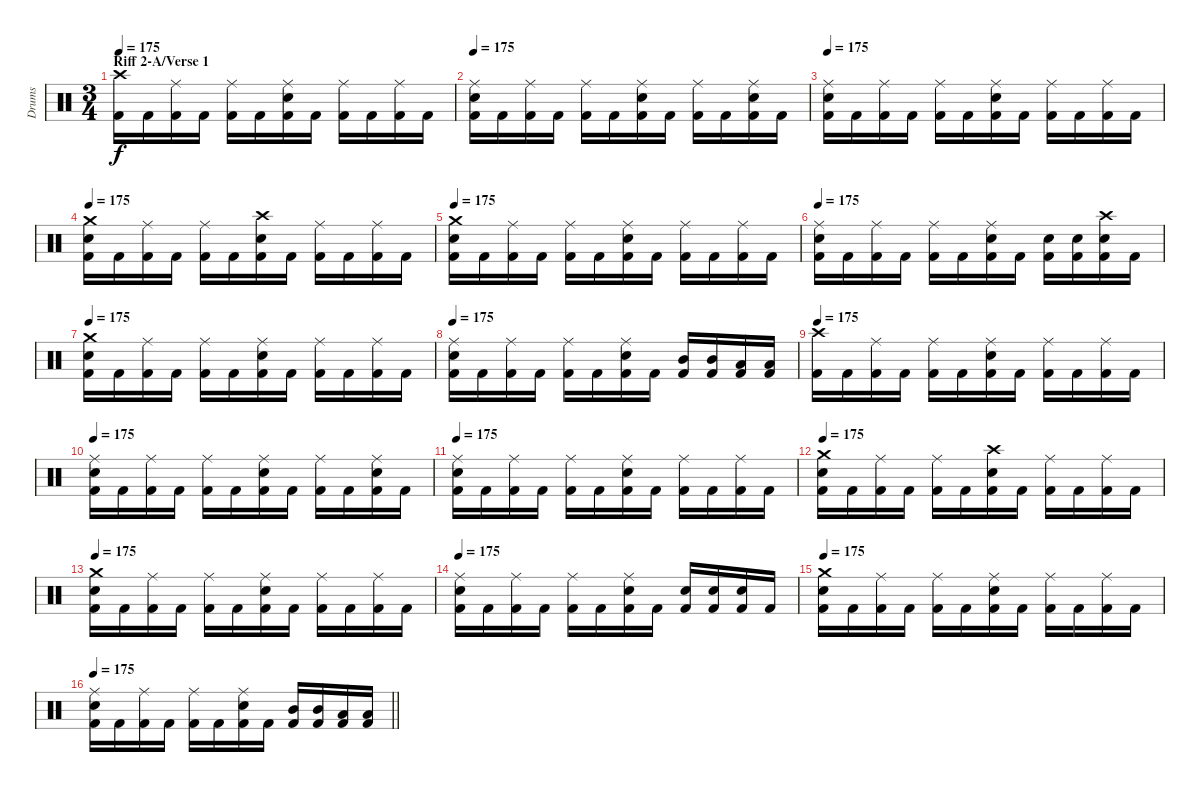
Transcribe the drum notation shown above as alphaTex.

\track ("Drums" "Drums") {instrument percussion}
\staff {score}
\articulation defaults
\ts (3 4)
\section ("" "Riff 2-A/Verse 1")
\tempo 175
\clef neutral
\ks c
("Crash high (hit)" "Kick (hit) 2").16{dy f} "Kick (hit) 2".16 ("Ride (middle)" "Kick (hit) 2").16 "Kick (hit) 2".16 ("Ride (middle)" "Kick (hit) 2").16 "Kick (hit) 2".16 ("Ride (middle)" "Electric Snare (hit)" "Kick (hit) 2").16 "Kick (hit) 2".16 ("Ride (middle)" "Kick (hit) 2").16 "Kick (hit) 2".16 ("Ride (middle)" "Kick (hit) 2").16 "Kick (hit) 2".16 |
\tempo 175
("Ride (middle)" "Electric Snare (hit)" "Kick (hit) 2").16 "Kick (hit) 2".16 ("Ride (middle)" "Kick (hit) 2").16 "Kick (hit) 2".16 ("Ride (middle)" "Kick (hit) 2").16 "Kick (hit) 2".16 ("Ride (middle)" "Electric Snare (hit)" "Kick (hit) 2").16 "Kick (hit) 2".16 ("Ride (middle)" "Kick (hit) 2").16 "Kick (hit) 2".16 ("Ride (middle)" "Electric Snare (hit)" "Kick (hit) 2").16 "Kick (hit) 2".16 |
\tempo 175
("Ride (middle)" "Electric Snare (hit)" "Kick (hit) 2").16 "Kick (hit) 2".16 ("Ride (middle)" "Kick (hit) 2").16 "Kick (hit) 2".16 ("Ride (middle)" "Kick (hit) 2").16 "Kick (hit) 2".16 ("Ride (middle)" "Electric Snare (hit)" "Kick (hit) 2").16 "Kick (hit) 2".16 ("Ride (middle)" "Kick (hit) 2").16 "Kick (hit) 2".16 ("Ride (middle)" "Kick (hit) 2").16 "Kick (hit) 2".16 |
\tempo 175
("Crash medium (hit)" "Electric Snare (hit)" "Kick (hit) 2").16 "Kick (hit) 2".16 ("Ride (middle)" "Kick (hit) 2").16 "Kick (hit) 2".16 ("Ride (middle)" "Kick (hit) 2").16 "Kick (hit) 2".16 ("Crash high (hit)" "Electric Snare (hit)" "Kick (hit) 2").16 "Kick (hit) 2".16 ("Ride (middle)" "Kick (hit) 2").16 "Kick (hit) 2".16 ("Ride (middle)" "Kick (hit) 2").16 "Kick (hit) 2".16 |
\tempo 175
("Crash medium (hit)" "Electric Snare (hit)" "Kick (hit) 2").16 "Kick (hit) 2".16 ("Ride (middle)" "Kick (hit) 2").16 "Kick (hit) 2".16 ("Ride (middle)" "Kick (hit) 2").16 "Kick (hit) 2".16 ("Ride (middle)" "Electric Snare (hit)" "Kick (hit) 2").16 "Kick (hit) 2".16 ("Ride (middle)" "Kick (hit) 2").16 "Kick (hit) 2".16 ("Ride (middle)" "Kick (hit) 2").16 "Kick (hit) 2".16 |
\tempo 175
("Ride (middle)" "Electric Snare (hit)" "Kick (hit) 2").16 "Kick (hit) 2".16 ("Ride (middle)" "Kick (hit) 2").16 "Kick (hit) 2".16 ("Ride (middle)" "Kick (hit) 2").16 "Kick (hit) 2".16 ("Ride (middle)" "Electric Snare (hit)" "Kick (hit) 2").16 "Kick (hit) 2".16 ("Electric Snare (hit)" "Kick (hit) 2").16 ("Electric Snare (hit)" "Kick (hit) 2").16 ("Crash high (hit)" "Electric Snare (hit)" "Kick (hit) 2").16 "Kick (hit) 2".16 |
\tempo 175
("Crash medium (hit)" "Electric Snare (hit)" "Kick (hit) 2").16 "Kick (hit) 2".16 ("Ride (middle)" "Kick (hit) 2").16 "Kick (hit) 2".16 ("Ride (middle)" "Kick (hit) 2").16 "Kick (hit) 2".16 ("Ride (middle)" "Electric Snare (hit)" "Kick (hit) 2").16 "Kick (hit) 2".16 ("Ride (middle)" "Kick (hit) 2").16 "Kick (hit) 2".16 ("Ride (middle)" "Kick (hit) 2").16 "Kick (hit) 2".16 |
\tempo 175
("Ride (middle)" "Electric Snare (hit)" "Kick (hit) 2").16 "Kick (hit) 2".16 ("Ride (middle)" "Kick (hit) 2").16 "Kick (hit) 2".16 ("Ride (middle)" "Kick (hit) 2").16 "Kick (hit) 2".16 ("Ride (middle)" "Electric Snare (hit)" "Kick (hit) 2").16 "Kick (hit) 2".16 ("Mid Tom (hit)" "Kick (hit) 2").16 ("Mid Tom (hit)" "Kick (hit) 2").16 ("Low Tom (hit)" "Kick (hit) 2").16 ("Low Tom (hit)" "Kick (hit) 2").16 |
\tempo 175
("Crash high (hit)" "Kick (hit) 2").16 "Kick (hit) 2".16 ("Ride (middle)" "Kick (hit) 2").16 "Kick (hit) 2".16 ("Ride (middle)" "Kick (hit) 2").16 "Kick (hit) 2".16 ("Ride (middle)" "Electric Snare (hit)" "Kick (hit) 2").16 "Kick (hit) 2".16 ("Ride (middle)" "Kick (hit) 2").16 "Kick (hit) 2".16 ("Ride (middle)" "Kick (hit) 2").16 "Kick (hit) 2".16 |
\tempo 175
("Ride (middle)" "Electric Snare (hit)" "Kick (hit) 2").16 "Kick (hit) 2".16 ("Ride (middle)" "Kick (hit) 2").16 "Kick (hit) 2".16 ("Ride (middle)" "Kick (hit) 2").16 "Kick (hit) 2".16 ("Ride (middle)" "Electric Snare (hit)" "Kick (hit) 2").16 "Kick (hit) 2".16 ("Ride (middle)" "Kick (hit) 2").16 "Kick (hit) 2".16 ("Ride (middle)" "Electric Snare (hit)" "Kick (hit) 2").16 "Kick (hit) 2".16 |
\tempo 175
("Ride (middle)" "Electric Snare (hit)" "Kick (hit) 2").16 "Kick (hit) 2".16 ("Ride (middle)" "Kick (hit) 2").16 "Kick (hit) 2".16 ("Ride (middle)" "Kick (hit) 2").16 "Kick (hit) 2".16 ("Ride (middle)" "Electric Snare (hit)" "Kick (hit) 2").16 "Kick (hit) 2".16 ("Ride (middle)" "Kick (hit) 2").16 "Kick (hit) 2".16 ("Ride (middle)" "Kick (hit) 2").16 "Kick (hit) 2".16 |
\tempo 175
("Crash medium (hit)" "Electric Snare (hit)" "Kick (hit) 2").16 "Kick (hit) 2".16 ("Ride (middle)" "Kick (hit) 2").16 "Kick (hit) 2".16 ("Ride (middle)" "Kick (hit) 2").16 "Kick (hit) 2".16 ("Crash high (hit)" "Electric Snare (hit)" "Kick (hit) 2").16 "Kick (hit) 2".16 ("Ride (middle)" "Kick (hit) 2").16 "Kick (hit) 2".16 ("Ride (middle)" "Kick (hit) 2").16 "Kick (hit) 2".16 |
\tempo 175
("Crash medium (hit)" "Electric Snare (hit)" "Kick (hit) 2").16 "Kick (hit) 2".16 ("Ride (middle)" "Kick (hit) 2").16 "Kick (hit) 2".16 ("Ride (middle)" "Kick (hit) 2").16 "Kick (hit) 2".16 ("Ride (middle)" "Electric Snare (hit)" "Kick (hit) 2").16 "Kick (hit) 2".16 ("Ride (middle)" "Kick (hit) 2").16 "Kick (hit) 2".16 ("Ride (middle)" "Kick (hit) 2").16 "Kick (hit) 2".16 |
\tempo 175
("Ride (middle)" "Electric Snare (hit)" "Kick (hit) 2").16 "Kick (hit) 2".16 ("Ride (middle)" "Kick (hit) 2").16 "Kick (hit) 2".16 ("Ride (middle)" "Kick (hit) 2").16 "Kick (hit) 2".16 ("Ride (middle)" "Electric Snare (hit)" "Kick (hit) 2").16 "Kick (hit) 2".16 ("Electric Snare (hit)" "Kick (hit) 2").16 ("Electric Snare (hit)" "Kick (hit) 2").16 ("Electric Snare (hit)" "Kick (hit) 2").16 "Kick (hit) 2".16 |
\tempo 175
("Crash medium (hit)" "Electric Snare (hit)" "Kick (hit) 2").16 "Kick (hit) 2".16 ("Ride (middle)" "Kick (hit) 2").16 "Kick (hit) 2".16 ("Ride (middle)" "Kick (hit) 2").16 "Kick (hit) 2".16 ("Ride (middle)" "Electric Snare (hit)" "Kick (hit) 2").16 "Kick (hit) 2".16 ("Ride (middle)" "Kick (hit) 2").16 "Kick (hit) 2".16 ("Ride (middle)" "Kick (hit) 2").16 "Kick (hit) 2".16 |
\tempo 175
\barLineRight lightlight
("Ride (middle)" "Electric Snare (hit)" "Kick (hit) 2").16 "Kick (hit) 2".16 ("Ride (middle)" "Kick (hit) 2").16 "Kick (hit) 2".16 ("Ride (middle)" "Kick (hit) 2").16 "Kick (hit) 2".16 ("Ride (middle)" "Electric Snare (hit)" "Kick (hit) 2").16 "Kick (hit) 2".16 ("Mid Tom (hit)" "Kick (hit) 2").16 ("Mid Tom (hit)" "Kick (hit) 2").16 ("Low Tom (hit)" "Kick (hit) 2").16 ("Low Tom (hit)" "Kick (hit) 2").16
